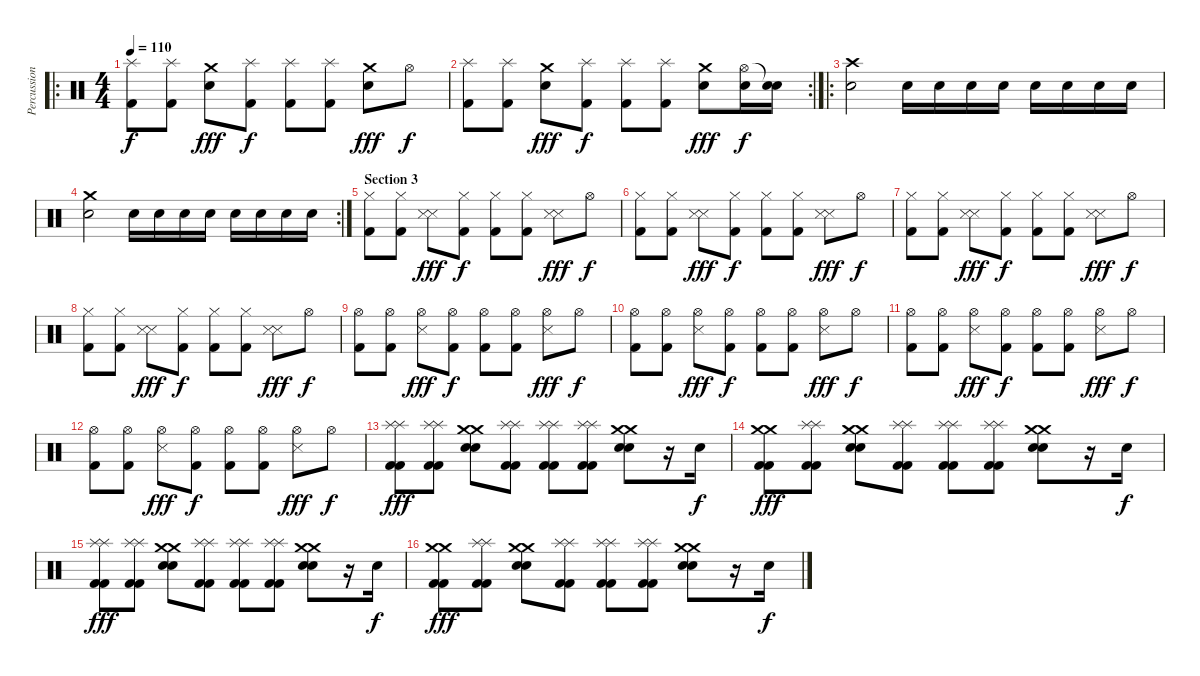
\track ("Percussions" "Percussion") {instrument percussion}
\staff {score}
\articulation defaults
\ro
\ts (4 4)
\tempo 110
\clef neutral
\ks c
("Splash (hit)" "Kick (hit) 2").8{dy f} ("Splash (hit)" "Kick (hit) 2").8 ("Crash medium (hit)" "Snare (hit) 2").8{dy fff} ("Splash (hit)" "Kick (hit) 2").8{dy f} ("Splash (hit)" "Kick (hit) 2").8 ("Splash (hit)" "Kick (hit) 2").8 ("Crash medium (hit)" "Snare (hit) 2").8{dy fff} "Hi-Hat (open)".8{dy f} |
\rc 2
("Splash (hit)" "Kick (hit) 2").8 ("Splash (hit)" "Kick (hit) 2").8 ("Crash medium (hit)" "Snare (hit) 2").8{dy fff} ("Splash (hit)" "Kick (hit) 2").8{dy f} ("Splash (hit)" "Kick (hit) 2").8 ("Splash (hit)" "Kick (hit) 2").8 ("Crash medium (hit)" "Snare (hit) 2").8{dy fff} ("Hi-Hat (open)" "Snare (hit) 2").16{dy f} ("Snare (hit)"{t} "Snare (hit) 2").16 |
\ro
("Crash high (hit)" "Snare (hit) 2").2 "Snare (hit) 2".16 "Snare (hit) 2".16 "Snare (hit) 2".16 "Snare (hit) 2".16 "Snare (hit) 2".16 "Snare (hit) 2".16 "Snare (hit) 2".16 "Snare (hit) 2".16 |
\rc 2
("Crash medium (hit)" "Snare (hit) 2").2 "Snare (hit) 2".16 "Snare (hit) 2".16 "Snare (hit) 2".16 "Snare (hit) 2".16 "Snare (hit) 2".16 "Snare (hit) 2".16 "Snare (hit) 2".16 "Snare (hit) 2".16 |
\section ("" "Section 3")
("Hi-Hat (closed)" "Kick (hit) 2").8 ("Hi-Hat (closed)" "Kick (hit) 2").8 ("Snare (side stick) 3" "Snare (side stick) 3").8{dy fff} ("Hi-Hat (closed)" "Kick (hit) 2").8{dy f} ("Hi-Hat (closed)" "Kick (hit) 2").8 ("Hi-Hat (closed)" "Kick (hit) 2").8 ("Snare (side stick) 3" "Snare (side stick) 3").8{dy fff} "Hi-Hat (open)".8{dy f} |
("Hi-Hat (closed)" "Kick (hit) 2").8 ("Hi-Hat (closed)" "Kick (hit) 2").8 ("Snare (side stick) 3" "Snare (side stick) 3").8{dy fff} ("Hi-Hat (closed)" "Kick (hit) 2").8{dy f} ("Hi-Hat (closed)" "Kick (hit) 2").8 ("Hi-Hat (closed)" "Kick (hit) 2").8 ("Snare (side stick) 3" "Snare (side stick) 3").8{dy fff} "Hi-Hat (open)".8{dy f} |
("Hi-Hat (closed)" "Kick (hit) 2").8 ("Hi-Hat (closed)" "Kick (hit) 2").8 ("Snare (side stick) 3" "Snare (side stick) 3").8{dy fff} ("Hi-Hat (closed)" "Kick (hit) 2").8{dy f} ("Hi-Hat (closed)" "Kick (hit) 2").8 ("Hi-Hat (closed)" "Kick (hit) 2").8 ("Snare (side stick) 3" "Snare (side stick) 3").8{dy fff} "Hi-Hat (open)".8{dy f} |
("Hi-Hat (closed)" "Kick (hit) 2").8 ("Hi-Hat (closed)" "Kick (hit) 2").8 ("Snare (side stick) 3" "Snare (side stick) 3").8{dy fff} ("Hi-Hat (closed)" "Kick (hit) 2").8{dy f} ("Hi-Hat (closed)" "Kick (hit) 2").8 ("Hi-Hat (closed)" "Kick (hit) 2").8 ("Snare (side stick) 3" "Snare (side stick) 3").8{dy fff} "Hi-Hat (open)".8{dy f} |
("Hi-Hat (open)" "Kick (hit) 2").8 ("Hi-Hat (open)" "Kick (hit) 2").8 ("Hi-Hat (open)" "Snare (side stick) 3").8{dy fff} ("Hi-Hat (open)" "Kick (hit) 2").8{dy f} ("Hi-Hat (open)" "Kick (hit) 2").8 ("Hi-Hat (open)" "Kick (hit) 2").8 ("Hi-Hat (open)" "Snare (side stick) 3").8{dy fff} "Hi-Hat (open)".8{dy f} |
("Hi-Hat (open)" "Kick (hit) 2").8 ("Hi-Hat (open)" "Kick (hit) 2").8 ("Hi-Hat (open)" "Snare (side stick) 3").8{dy fff} ("Hi-Hat (open)" "Kick (hit) 2").8{dy f} ("Hi-Hat (open)" "Kick (hit) 2").8 ("Hi-Hat (open)" "Kick (hit) 2").8 ("Hi-Hat (open)" "Snare (side stick) 3").8{dy fff} "Hi-Hat (open)".8{dy f} |
("Hi-Hat (open)" "Kick (hit) 2").8 ("Hi-Hat (open)" "Kick (hit) 2").8 ("Hi-Hat (open)" "Snare (side stick) 3").8{dy fff} ("Hi-Hat (open)" "Kick (hit) 2").8{dy f} ("Hi-Hat (open)" "Kick (hit) 2").8 ("Hi-Hat (open)" "Kick (hit) 2").8 ("Hi-Hat (open)" "Snare (side stick) 3").8{dy fff} "Hi-Hat (open)".8{dy f} |
("Hi-Hat (open)" "Kick (hit) 2").8 ("Hi-Hat (open)" "Kick (hit) 2").8 ("Hi-Hat (open)" "Snare (side stick) 3").8{dy fff} ("Hi-Hat (open)" "Kick (hit) 2").8{dy f} ("Hi-Hat (open)" "Kick (hit) 2").8 ("Hi-Hat (open)" "Kick (hit) 2").8 ("Hi-Hat (open)" "Snare (side stick) 3").8{dy fff} "Hi-Hat (open)".8{dy f} |
("Splash (hit)" "Splash (hit)" "Kick (hit) 2" "Kick (hit) 2").8{dy fff} ("Splash (hit)" "Splash (hit)" "Kick (hit) 2" "Kick (hit) 2").8 ("Crash medium (hit)" "Crash medium (hit)" "Snare (hit) 2" "Snare (hit) 2").8 ("Splash (hit)" "Splash (hit)" "Kick (hit) 2" "Kick (hit) 2").8 ("Splash (hit)" "Splash (hit)" "Kick (hit) 2" "Kick (hit) 2").8 ("Splash (hit)" "Splash (hit)" "Kick (hit) 2" "Kick (hit) 2").8 ("Crash medium (hit)" "Crash medium (hit)" "Snare (hit) 2" "Snare (hit) 2").8 r.16 "Snare (hit) 2".16{dy f} |
("Crash medium (hit)" "Crash medium (hit)" "Kick (hit) 2" "Kick (hit) 2").8{dy fff} ("Splash (hit)" "Splash (hit)" "Kick (hit) 2" "Kick (hit) 2").8 ("Crash medium (hit)" "Crash medium (hit)" "Snare (hit) 2" "Snare (hit) 2").8 ("Splash (hit)" "Splash (hit)" "Kick (hit) 2" "Kick (hit) 2").8 ("Splash (hit)" "Splash (hit)" "Kick (hit) 2" "Kick (hit) 2").8 ("Splash (hit)" "Splash (hit)" "Kick (hit) 2" "Kick (hit) 2").8 ("Crash medium (hit)" "Crash medium (hit)" "Snare (hit) 2" "Snare (hit) 2").8 r.16 "Snare (hit) 2".16{dy f} |
("Splash (hit)" "Splash (hit)" "Kick (hit) 2" "Kick (hit) 2").8{dy fff} ("Splash (hit)" "Splash (hit)" "Kick (hit) 2" "Kick (hit) 2").8 ("Crash medium (hit)" "Crash medium (hit)" "Snare (hit) 2" "Snare (hit) 2").8 ("Splash (hit)" "Splash (hit)" "Kick (hit) 2" "Kick (hit) 2").8 ("Splash (hit)" "Splash (hit)" "Kick (hit) 2" "Kick (hit) 2").8 ("Splash (hit)" "Splash (hit)" "Kick (hit) 2" "Kick (hit) 2").8 ("Crash medium (hit)" "Crash medium (hit)" "Snare (hit) 2" "Snare (hit) 2").8 r.16 "Snare (hit) 2".16{dy f} |
("Crash medium (hit)" "Crash medium (hit)" "Kick (hit) 2" "Kick (hit) 2").8{dy fff} ("Splash (hit)" "Splash (hit)" "Kick (hit) 2" "Kick (hit) 2").8 ("Crash medium (hit)" "Crash medium (hit)" "Snare (hit) 2" "Snare (hit) 2").8 ("Splash (hit)" "Splash (hit)" "Kick (hit) 2" "Kick (hit) 2").8 ("Splash (hit)" "Splash (hit)" "Kick (hit) 2" "Kick (hit) 2").8 ("Splash (hit)" "Splash (hit)" "Kick (hit) 2" "Kick (hit) 2").8 ("Crash medium (hit)" "Crash medium (hit)" "Snare (hit) 2" "Snare (hit) 2").8 r.16 "Snare (hit) 2".16{dy f}
